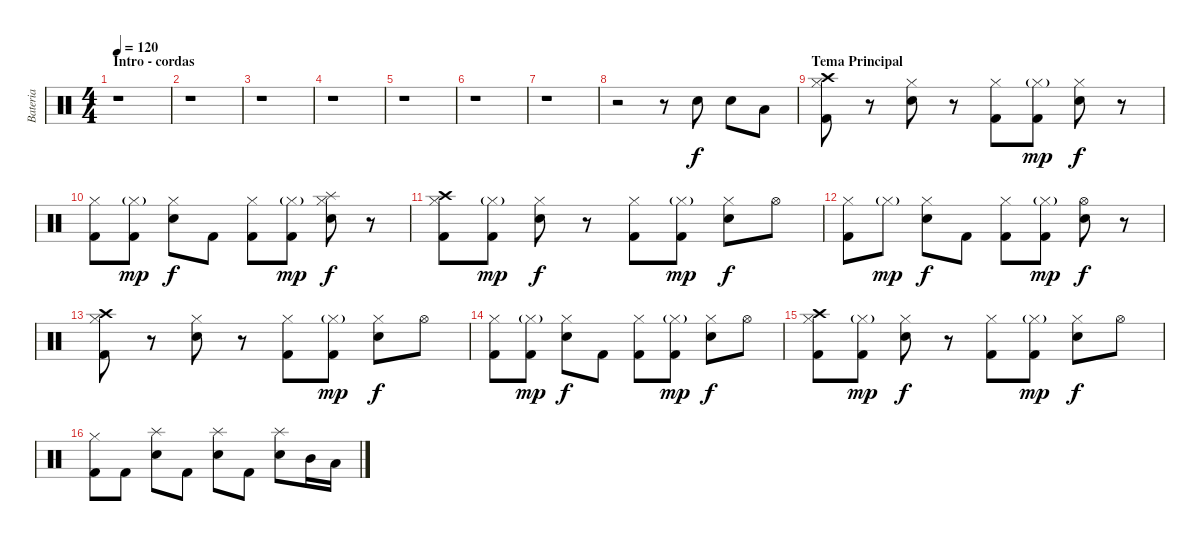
\track ("Bateria" "Bateria") {instrument percussion}
\staff {score}
\articulation defaults
\ts (4 4)
\section ("" "Intro - cordas")
\tempo 120
\clef neutral
\ks c
r.1{dy f} |
r.1 |
r.1 |
r.1 |
r.1 |
r.1 |
r.1 |
r.2 r.8 "Snare (hit) 2".8 "Snare (hit) 2".8 "Low Tom (hit)".8 |
\section ("" "Tema Principal")
("Hi-Hat (closed)" "Kick (hit) 2" "Crash high (hit)").8 r.8 ("Hi-Hat (closed)" "Snare (hit) 2").8 r.8 ("Hi-Hat (closed)" "Kick (hit) 2").8 ("Hi-Hat (closed)"{g} "Kick (hit) 2").8{dy mp} ("Hi-Hat (closed)" "Snare (hit) 2").8{dy f} r.8 |
("Hi-Hat (closed)" "Kick (hit) 2").8 ("Hi-Hat (closed)"{g} "Kick (hit) 2").8{dy mp} ("Hi-Hat (closed)" "Snare (hit) 2").8{dy f} "Kick (hit) 2".8 ("Hi-Hat (closed)" "Kick (hit) 2").8 ("Hi-Hat (closed)"{g} "Kick (hit) 2").8{dy mp} ("Hi-Hat (closed)" "Snare (hit) 2" "Splash (hit)").8{dy f} r.8 |
("Hi-Hat (closed)" "Kick (hit) 2" "Crash high (hit)").8 ("Hi-Hat (closed)"{g} "Kick (hit) 2").8{dy mp} ("Hi-Hat (closed)" "Snare (hit) 2").8{dy f} r.8 ("Hi-Hat (closed)" "Kick (hit) 2").8 ("Hi-Hat (closed)"{g} "Kick (hit) 2").8{dy mp} ("Hi-Hat (closed)" "Snare (hit) 2").8{dy f} "Hi-Hat (open)".8 |
("Hi-Hat (closed)" "Kick (hit) 2").8 "Hi-Hat (closed)"{g}.8{dy mp} ("Hi-Hat (closed)" "Snare (hit) 2").8{dy f} "Kick (hit) 2".8 ("Hi-Hat (closed)" "Kick (hit) 2").8 ("Hi-Hat (closed)"{g} "Kick (hit) 2").8{dy mp} ("Hi-Hat (open)" "Snare (hit) 2").8{dy f} r.8 |
("Hi-Hat (closed)" "Kick (hit) 2" "Crash high (hit)").8 r.8 ("Hi-Hat (closed)" "Snare (hit) 2").8 r.8 ("Hi-Hat (closed)" "Kick (hit) 2").8 ("Hi-Hat (closed)"{g} "Kick (hit) 2").8{dy mp} ("Hi-Hat (closed)" "Snare (hit) 2").8{dy f} "Hi-Hat (open)".8 |
("Hi-Hat (closed)" "Kick (hit) 2").8 ("Hi-Hat (closed)"{g} "Kick (hit) 2").8{dy mp} ("Hi-Hat (closed)" "Snare (hit) 2").8{dy f} "Kick (hit) 2".8 ("Hi-Hat (closed)" "Kick (hit) 2").8 ("Hi-Hat (closed)"{g} "Kick (hit) 2").8{dy mp} ("Hi-Hat (closed)" "Snare (hit) 2").8{dy f} "Hi-Hat (open)".8 |
("Hi-Hat (closed)" "Kick (hit) 2" "Crash high (hit)").8 ("Hi-Hat (closed)"{g} "Kick (hit) 2").8{dy mp} ("Hi-Hat (closed)" "Snare (hit) 2").8{dy f} r.8 ("Hi-Hat (closed)" "Kick (hit) 2").8 ("Hi-Hat (closed)"{g} "Kick (hit) 2").8{dy mp} ("Hi-Hat (closed)" "Snare (hit) 2").8{dy f} "Hi-Hat (open)".8 |
("Hi-Hat (closed)" "Kick (hit) 2").8 "Kick (hit) 2".8 ("Snare (hit) 2" "Splash (hit)").8 "Kick (hit) 2".8 ("Snare (hit) 2" "Splash (hit)").8 "Kick (hit) 2".8 ("Snare (hit) 2" "Splash (hit)").8 "Mid Tom (hit)".16 "Low Tom (hit)".16
